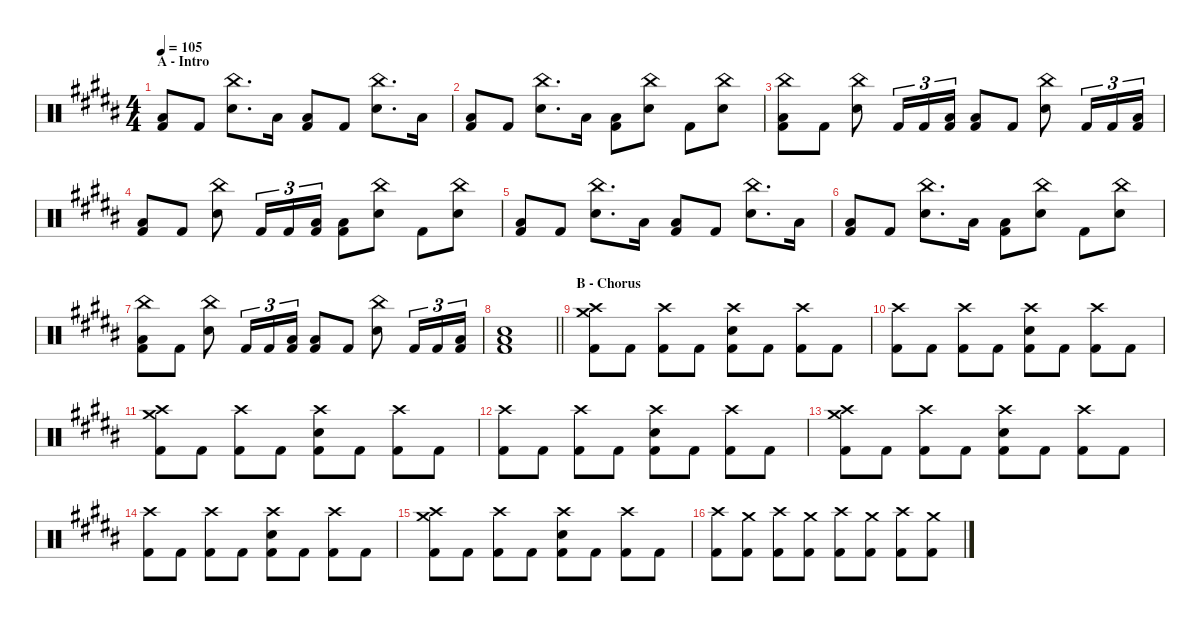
\defaultSystemsLayout 4
\hideDynamics
\bracketExtendMode nobrackets
\singleTrackTrackNamePolicy hidden
\multiTrackTrackNamePolicy hidden
\firstSystemTrackNameMode fullname
\firstSystemTrackNameOrientation horizontal
\otherSystemsTrackNameOrientation horizontal
\track ("Percussions" "drm.") {instrument percussion}
\staff {score}
\articulation defaults
\ts (4 4)
\beaming (8 2 2 2 2)
\section ("" "A - Intro")
\tempo 105
\clef neutral
\ks b
("Low Tom (hit)"{acc bb} "Kick (hit) 2"{acc bb}).8{dy f beam Up} "Kick (hit) 2"{acc bb}.8{beam Up} ("China (hit)"{acc bb} "Snare (hit) 2"{acc bb}).8{d beam Down} "Low Tom (hit)"{acc bb}.16{beam Down} ("Low Tom (hit)"{acc bb} "Kick (hit) 2"{acc bb}).8{beam Up} "Kick (hit) 2"{acc bb}.8{beam Up} ("China (hit)"{acc bb} "Snare (hit) 2"{acc bb}).8{d beam Down} "Low Tom (hit)"{acc bb}.16{beam Down} |
("Low Tom (hit)"{acc bb} "Kick (hit) 2"{acc bb}).8{beam Up} "Kick (hit) 2"{acc bb}.8{beam Up} ("China (hit)"{acc bb} "Snare (hit) 2"{acc bb}).8{d beam Down} "Low Tom (hit)"{acc bb}.16{beam Down} ("Low Tom (hit)"{acc bb} "Kick (hit) 2"{acc bb}).8{beam Down} ("China (hit)"{acc bb} "Snare (hit) 2"{acc bb}).8{beam Down} "Kick (hit) 2"{acc bb}.8{beam Down} ("China (hit)"{acc bb} "Snare (hit) 2"{acc bb}).8{beam Down} |
("China (hit)"{acc bb} "Low Tom (hit)"{acc bb} "Kick (hit) 2"{acc bb}).8{beam Down} "Kick (hit) 2"{acc bb}.8{beam Down} ("China (hit)"{acc bb} "Snare (hit) 2"{acc bb}).8{beam Down} "Kick (hit) 2"{acc bb}.16{tu (3 2) dy fff beam Up} "Kick (hit) 2"{acc bb}.16{tu (3 2) beam Up} ("Low Tom (hit)"{acc bb} "Kick (hit) 2"{acc bb}).16{tu (3 2) dy f beam Up} ("Low Tom (hit)"{acc bb} "Kick (hit) 2"{acc bb}).8{beam Up} "Kick (hit) 2"{acc bb}.8{beam Up} ("China (hit)"{acc bb} "Snare (hit) 2"{acc bb}).8{beam Down} "Kick (hit) 2"{acc bb}.16{tu (3 2) dy fff beam Up} "Kick (hit) 2"{acc bb}.16{tu (3 2) beam Up} ("Low Tom (hit)"{acc bb} "Kick (hit) 2"{acc bb}).16{tu (3 2) dy f beam Up} |
("Low Tom (hit)"{acc bb} "Kick (hit) 2"{acc bb}).8{beam Up} "Kick (hit) 2"{acc bb}.8{dy fff beam Up} ("China (hit)"{acc bb} "Snare (hit) 2"{acc bb}).8{dy f beam Down} "Kick (hit) 2"{acc bb}.16{tu (3 2) dy fff beam Up} "Kick (hit) 2"{acc bb}.16{tu (3 2) beam Up} ("Low Tom (hit)"{acc bb} "Kick (hit) 2"{acc bb}).16{tu (3 2) dy f beam Up} ("Low Tom (hit)"{acc bb} "Kick (hit) 2"{acc bb}).8{beam Down} ("China (hit)"{acc bb} "Snare (hit) 2"{acc bb}).8{beam Down} "Kick (hit) 2"{acc bb}.8{beam Down} ("China (hit)"{acc bb} "Snare (hit) 2"{acc bb}).8{beam Down} |
("Low Tom (hit)"{acc bb} "Kick (hit) 2"{acc bb}).8{beam Up} "Kick (hit) 2"{acc bb}.8{beam Up} ("China (hit)"{acc bb} "Snare (hit) 2"{acc bb}).8{d beam Down} "Low Tom (hit)"{acc bb}.16{beam Down} ("Low Tom (hit)"{acc bb} "Kick (hit) 2"{acc bb}).8{beam Up} "Kick (hit) 2"{acc bb}.8{beam Up} ("China (hit)"{acc bb} "Snare (hit) 2"{acc bb}).8{d beam Down} "Low Tom (hit)"{acc bb}.16{beam Down} |
("Low Tom (hit)"{acc bb} "Kick (hit) 2"{acc bb}).8{beam Up} "Kick (hit) 2"{acc bb}.8{beam Up} ("China (hit)"{acc bb} "Snare (hit) 2"{acc bb}).8{d beam Down} "Low Tom (hit)"{acc bb}.16{beam Down} ("Low Tom (hit)"{acc bb} "Kick (hit) 2"{acc bb}).8{beam Down} ("China (hit)"{acc bb} "Snare (hit) 2"{acc bb}).8{beam Down} "Kick (hit) 2"{acc bb}.8{beam Down} ("China (hit)"{acc bb} "Snare (hit) 2"{acc bb}).8{beam Down} |
("China (hit)"{acc bb} "Low Tom (hit)"{acc bb} "Kick (hit) 2"{acc bb}).8{beam Down} "Kick (hit) 2"{acc bb}.8{beam Down} ("China (hit)"{acc bb} "Snare (hit) 2"{acc bb}).8{beam Down} "Kick (hit) 2"{acc bb}.16{tu (3 2) dy fff beam Up} "Kick (hit) 2"{acc bb}.16{tu (3 2) beam Up} ("Low Tom (hit)"{acc bb} "Kick (hit) 2"{acc bb}).16{tu (3 2) dy f beam Up} ("Low Tom (hit)"{acc bb} "Kick (hit) 2"{acc bb}).8{beam Up} "Kick (hit) 2"{acc bb}.8{beam Up} ("China (hit)"{acc bb} "Snare (hit) 2"{acc bb}).8{beam Down} "Kick (hit) 2"{acc bb}.16{tu (3 2) dy fff beam Up} "Kick (hit) 2"{acc bb}.16{tu (3 2) beam Up} ("Low Tom (hit)"{acc bb} "Kick (hit) 2"{acc bb}).16{tu (3 2) dy f beam Up} |
\barLineRight lightlight
("Snare (hit) 2"{acc bb} "Low Tom (hit)"{acc bb} "Kick (hit) 2"{acc bb}).1{dy fff beam Up} |
\section ("" "B - Chorus")
("Crash medium (hit)"{acc bb} "Crash high (hit)"{acc bb} "Kick (hit) 2"{acc bb}).8{dy f beam Down} "Kick (hit) 2"{acc bb}.8{beam Down} ("Crash high (hit)"{acc bb} "Kick (hit) 2"{acc bb}).8{beam Down} "Kick (hit) 2"{acc bb}.8{beam Down} ("Crash high (hit)"{acc bb} "Snare (hit) 2"{acc bb} "Kick (hit) 2"{acc bb}).8{beam Down} "Kick (hit) 2"{acc bb}.8{beam Down} ("Crash high (hit)"{acc bb} "Kick (hit) 2"{acc bb}).8{beam Down} "Kick (hit) 2"{acc bb}.8{beam Down} |
("Crash high (hit)"{acc bb} "Kick (hit) 2"{acc bb}).8{beam Down} "Kick (hit) 2"{acc bb}.8{beam Down} ("Crash high (hit)"{acc bb} "Kick (hit) 2"{acc bb}).8{beam Down} "Kick (hit) 2"{acc bb}.8{beam Down} ("Crash high (hit)"{acc bb} "Snare (hit) 2"{acc bb} "Kick (hit) 2"{acc bb}).8{beam Down} "Kick (hit) 2"{acc bb}.8{beam Down} ("Crash high (hit)"{acc bb} "Kick (hit) 2"{acc bb}).8{beam Down} "Kick (hit) 2"{acc bb}.8{beam Down} |
("Crash medium (hit)"{acc bb} "Crash high (hit)"{acc bb} "Kick (hit) 2"{acc bb}).8{beam Down} "Kick (hit) 2"{acc bb}.8{beam Down} ("Crash high (hit)"{acc bb} "Kick (hit) 2"{acc bb}).8{beam Down} "Kick (hit) 2"{acc bb}.8{beam Down} ("Crash high (hit)"{acc bb} "Snare (hit) 2"{acc bb} "Kick (hit) 2"{acc bb}).8{beam Down} "Kick (hit) 2"{acc bb}.8{beam Down} ("Crash high (hit)"{acc bb} "Kick (hit) 2"{acc bb}).8{beam Down} "Kick (hit) 2"{acc bb}.8{beam Down} |
("Crash high (hit)"{acc bb} "Kick (hit) 2"{acc bb}).8{beam Down} "Kick (hit) 2"{acc bb}.8{beam Down} ("Crash high (hit)"{acc bb} "Kick (hit) 2"{acc bb}).8{beam Down} "Kick (hit) 2"{acc bb}.8{beam Down} ("Crash high (hit)"{acc bb} "Snare (hit) 2"{acc bb} "Kick (hit) 2"{acc bb}).8{beam Down} "Kick (hit) 2"{acc bb}.8{beam Down} ("Crash high (hit)"{acc bb} "Kick (hit) 2"{acc bb}).8{beam Down} "Kick (hit) 2"{acc bb}.8{beam Down} |
("Crash medium (hit)"{acc bb} "Crash high (hit)"{acc bb} "Kick (hit) 2"{acc bb}).8{beam Down} "Kick (hit) 2"{acc bb}.8{beam Down} ("Crash high (hit)"{acc bb} "Kick (hit) 2"{acc bb}).8{beam Down} "Kick (hit) 2"{acc bb}.8{beam Down} ("Crash high (hit)"{acc bb} "Snare (hit) 2"{acc bb} "Kick (hit) 2"{acc bb}).8{beam Down} "Kick (hit) 2"{acc bb}.8{beam Down} ("Crash high (hit)"{acc bb} "Kick (hit) 2"{acc bb}).8{beam Down} "Kick (hit) 2"{acc bb}.8{beam Down} |
("Crash high (hit)"{acc bb} "Kick (hit) 2"{acc bb}).8{beam Down} "Kick (hit) 2"{acc bb}.8{beam Down} ("Crash high (hit)"{acc bb} "Kick (hit) 2"{acc bb}).8{beam Down} "Kick (hit) 2"{acc bb}.8{beam Down} ("Crash high (hit)"{acc bb} "Snare (hit) 2"{acc bb} "Kick (hit) 2"{acc bb}).8{beam Down} "Kick (hit) 2"{acc bb}.8{beam Down} ("Crash high (hit)"{acc bb} "Kick (hit) 2"{acc bb}).8{beam Down} "Kick (hit) 2"{acc bb}.8{beam Down} |
("Crash medium (hit)"{acc bb} "Crash high (hit)"{acc bb} "Kick (hit) 2"{acc bb}).8{beam Down} "Kick (hit) 2"{acc bb}.8{beam Down} ("Crash high (hit)"{acc bb} "Kick (hit) 2"{acc bb}).8{beam Down} "Kick (hit) 2"{acc bb}.8{beam Down} ("Crash high (hit)"{acc bb} "Snare (hit) 2"{acc bb} "Kick (hit) 2"{acc bb}).8{beam Down} "Kick (hit) 2"{acc bb}.8{beam Down} ("Crash high (hit)"{acc bb} "Kick (hit) 2"{acc bb}).8{beam Down} "Kick (hit) 2"{acc bb}.8{beam Down} |
("Crash high (hit)"{acc bb} "Kick (hit) 2"{acc bb}).8{beam Down} ("Crash medium (hit)"{acc bb} "Kick (hit) 2"{acc bb}).8{beam Down} ("Crash high (hit)"{acc bb} "Kick (hit) 2"{acc bb}).8{beam Down} ("Crash medium (hit)"{acc bb} "Kick (hit) 2"{acc bb}).8{beam Down} ("Crash high (hit)"{acc bb} "Kick (hit) 2"{acc bb}).8{beam Down} ("Crash medium (hit)"{acc bb} "Kick (hit) 2"{acc bb}).8{beam Down} ("Crash high (hit)"{acc bb} "Kick (hit) 2"{acc bb}).8{beam Down} ("Crash medium (hit)"{acc bb} "Kick (hit) 2"{acc bb}).8{beam Down}
